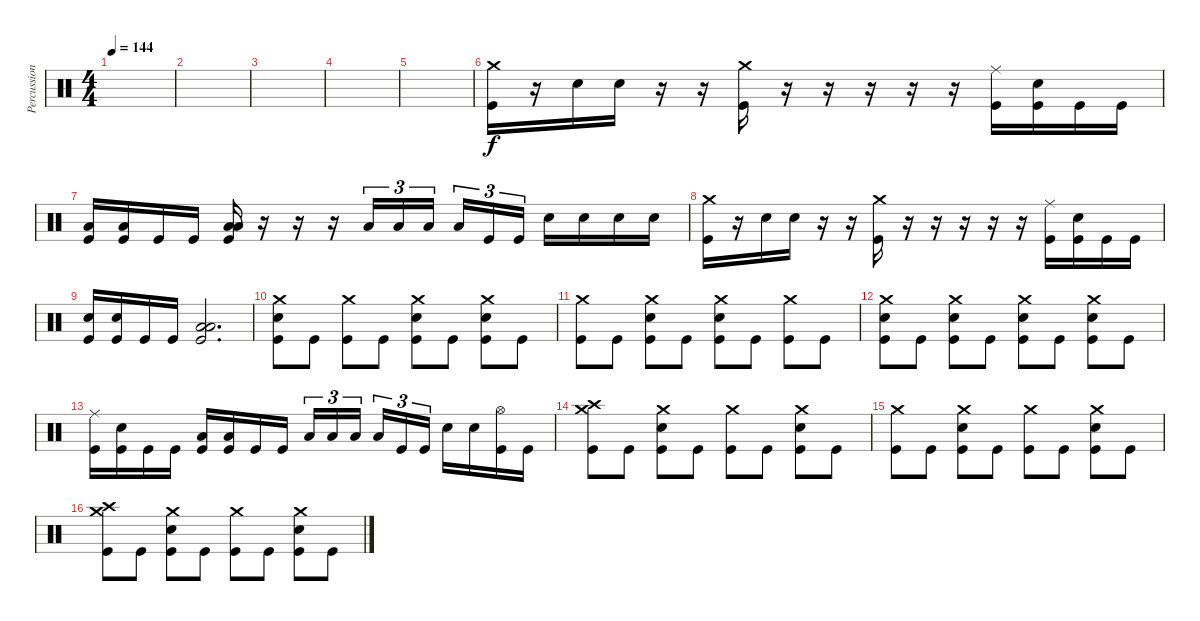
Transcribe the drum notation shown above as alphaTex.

\track ("Percussion" "Percussion") {instrument percussion}
\staff {score}
\articulation defaults
\ts (4 4)
\tempo 144
\clef neutral
\ks c
|
|
|
|
|
("Crash medium (hit)" "Kick (hit)").16 r.16 "Electric Snare (hit)".16 "Electric Snare (hit)".16 r.16 r.16 ("Crash medium (hit)" "Kick (hit)").16 r.16 r.16 r.16 r.16 r.16 ("Ride (middle)" "Kick (hit)").16 ("Electric Snare (hit)" "Kick (hit)").16 "Kick (hit)".16 "Kick (hit)".16 |
("Low Tom (hit)" "Kick (hit)").16 ("Low Tom (hit)" "Kick (hit)").16 "Kick (hit)".16 "Kick (hit)".16 ("Low Floor Tom (hit)" "Low Tom (hit)" "Kick (hit)").16 r.16 r.16 r.16 "Low Tom (hit)".16{tu (3 2)} "Low Tom (hit)".16{tu (3 2)} "Low Floor Tom (hit)".16{tu (3 2) beam splitsecondary} "Low Floor Tom (hit)".16{tu (3 2)} "Kick (hit)".16{tu (3 2)} "Kick (hit)".16{tu (3 2)} "Electric Snare (hit)".16 "Electric Snare (hit)".16 "Electric Snare (hit)".16 "Electric Snare (hit)".16 |
("Crash medium (hit)" "Kick (hit)").16 r.16 "Electric Snare (hit)".16 "Electric Snare (hit)".16 r.16 r.16 ("Crash medium (hit)" "Kick (hit)").16 r.16 r.16 r.16 r.16 r.16 ("Ride (middle)" "Kick (hit)").16 ("Electric Snare (hit)" "Kick (hit)").16 "Kick (hit)".16 "Kick (hit)".16 |
("Electric Snare (hit)" "Kick (hit)").16 ("Electric Snare (hit)" "Kick (hit)").16 "Kick (hit)".16 "Kick (hit)".16 ("Low Floor Tom (hit)" "Low Tom (hit)" "Kick (hit)").2{d} |
("Crash medium (hit)" "Electric Snare (hit)" "Kick (hit)").8 "Kick (hit)".8 ("Crash medium (hit)" "Kick (hit)").8 "Kick (hit)".8 ("Crash medium (hit)" "Electric Snare (hit)" "Kick (hit)").8 "Kick (hit)".8 ("Crash medium (hit)" "Electric Snare (hit)" "Kick (hit)").8 "Kick (hit)".8 |
("Crash medium (hit)" "Kick (hit)").8 "Kick (hit)".8 ("Crash medium (hit)" "Electric Snare (hit)" "Kick (hit)").8 "Kick (hit)".8 ("Crash medium (hit)" "Electric Snare (hit)" "Kick (hit)").8 "Kick (hit)".8 ("Crash medium (hit)" "Kick (hit)").8 "Kick (hit)".8 |
("Crash medium (hit)" "Electric Snare (hit)" "Kick (hit)").8 "Kick (hit)".8 ("Crash medium (hit)" "Electric Snare (hit)" "Kick (hit)").8 "Kick (hit)".8 ("Crash medium (hit)" "Electric Snare (hit)" "Kick (hit)").8 "Kick (hit)".8 ("Crash medium (hit)" "Electric Snare (hit)" "Kick (hit)").8 "Kick (hit)".8 |
("Ride (middle)" "Kick (hit)").16 ("Electric Snare (hit)" "Kick (hit)").16 "Kick (hit)".16 "Kick (hit)".16 ("Low Tom (hit)" "Kick (hit)").16 ("Low Tom (hit)" "Kick (hit)").16 "Kick (hit)".16 "Kick (hit)".16 "Low Tom (hit)".16{tu (3 2)} "Low Tom (hit)".16{tu (3 2)} "Low Floor Tom (hit)".16{tu (3 2) beam splitsecondary} "Low Floor Tom (hit)".16{tu (3 2)} "Kick (hit)".16{tu (3 2)} "Kick (hit)".16{tu (3 2)} "Electric Snare (hit)".16 "Electric Snare (hit)".16 ("Hi-Hat (open)" "Kick (hit)").16 "Kick (hit)".16 |
("Crash medium (hit)" "Crash high (hit)" "Kick (hit)").8 "Kick (hit)".8 ("Crash medium (hit)" "Electric Snare (hit)" "Kick (hit)").8 "Kick (hit)".8 ("Crash medium (hit)" "Kick (hit)").8 "Kick (hit)".8 ("Crash medium (hit)" "Electric Snare (hit)" "Kick (hit)").8 "Kick (hit)".8 |
("Crash medium (hit)" "Kick (hit)").8 "Kick (hit)".8 ("Crash medium (hit)" "Electric Snare (hit)" "Kick (hit)").8 "Kick (hit)".8 ("Crash medium (hit)" "Kick (hit)").8 "Kick (hit)".8 ("Crash medium (hit)" "Electric Snare (hit)" "Kick (hit)").8 "Kick (hit)".8 |
("Crash medium (hit)" "Crash high (hit)" "Kick (hit)").8 "Kick (hit)".8 ("Crash medium (hit)" "Electric Snare (hit)" "Kick (hit)").8 "Kick (hit)".8 ("Crash medium (hit)" "Kick (hit)").8 "Kick (hit)".8 ("Crash medium (hit)" "Electric Snare (hit)" "Kick (hit)").8 "Kick (hit)".8
